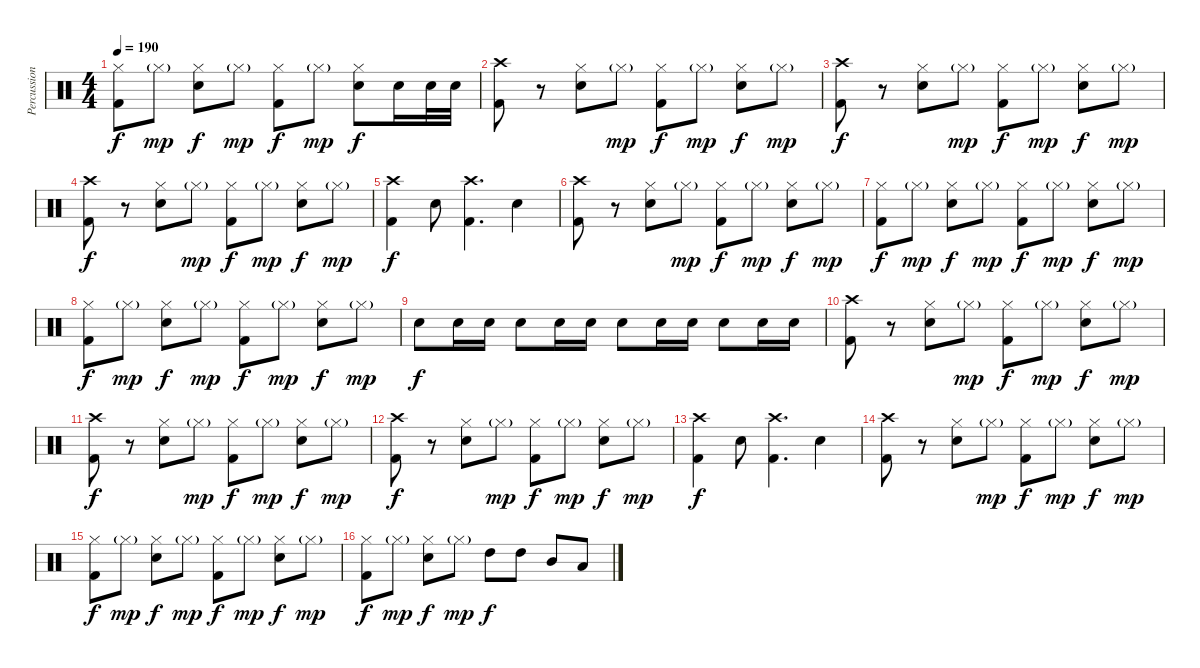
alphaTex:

\track ("Percussion" "Percussion") {instrument percussion}
\staff {score}
\articulation defaults
\ts (4 4)
\tempo 190
\clef neutral
\ks c
("Hi-Hat (closed)" "Kick (hit) 2").8{dy f} "Hi-Hat (closed)"{g}.8{dy mp} ("Hi-Hat (closed)" "Electric Snare (hit)").8{dy f} "Hi-Hat (closed)"{g}.8{dy mp} ("Hi-Hat (closed)" "Kick (hit) 2").8{dy f} "Hi-Hat (closed)"{g}.8{dy mp} ("Hi-Hat (closed)" "Electric Snare (hit)").8{dy f} "Electric Snare (hit)".16 "Electric Snare (hit)".32 "Electric Snare (hit)".32 |
("Crash high (hit)" "Kick (hit) 2").8 r.8 ("Hi-Hat (closed)" "Electric Snare (hit)").8 "Hi-Hat (closed)"{g}.8{dy mp} ("Hi-Hat (closed)" "Kick (hit) 2").8{dy f} "Hi-Hat (closed)"{g}.8{dy mp} ("Hi-Hat (closed)" "Electric Snare (hit)").8{dy f} "Hi-Hat (closed)"{g}.8{dy mp} |
("Crash high (hit)" "Kick (hit) 2").8{dy f} r.8 ("Hi-Hat (closed)" "Electric Snare (hit)").8 "Hi-Hat (closed)"{g}.8{dy mp} ("Hi-Hat (closed)" "Kick (hit) 2").8{dy f} "Hi-Hat (closed)"{g}.8{dy mp} ("Hi-Hat (closed)" "Electric Snare (hit)").8{dy f} "Hi-Hat (closed)"{g}.8{dy mp} |
("Crash high (hit)" "Kick (hit) 2").8{dy f} r.8 ("Hi-Hat (closed)" "Electric Snare (hit)").8 "Hi-Hat (closed)"{g}.8{dy mp} ("Hi-Hat (closed)" "Kick (hit) 2").8{dy f} "Hi-Hat (closed)"{g}.8{dy mp} ("Hi-Hat (closed)" "Electric Snare (hit)").8{dy f} "Hi-Hat (closed)"{g}.8{dy mp} |
("Crash high (hit)" "Kick (hit) 2").4{dy f} "Electric Snare (hit)".8 ("Crash high (hit)" "Kick (hit) 2").4{d} "Electric Snare (hit)".4 |
("Crash high (hit)" "Kick (hit) 2").8 r.8 ("Hi-Hat (closed)" "Electric Snare (hit)").8 "Hi-Hat (closed)"{g}.8{dy mp} ("Hi-Hat (closed)" "Kick (hit) 2").8{dy f} "Hi-Hat (closed)"{g}.8{dy mp} ("Hi-Hat (closed)" "Electric Snare (hit)").8{dy f} "Hi-Hat (closed)"{g}.8{dy mp} |
("Hi-Hat (closed)" "Kick (hit) 2").8{dy f} "Hi-Hat (closed)"{g}.8{dy mp} ("Hi-Hat (closed)" "Electric Snare (hit)").8{dy f} "Hi-Hat (closed)"{g}.8{dy mp} ("Hi-Hat (closed)" "Kick (hit) 2").8{dy f} "Hi-Hat (closed)"{g}.8{dy mp} ("Hi-Hat (closed)" "Electric Snare (hit)").8{dy f} "Hi-Hat (closed)"{g}.8{dy mp} |
("Hi-Hat (closed)" "Kick (hit) 2").8{dy f} "Hi-Hat (closed)"{g}.8{dy mp} ("Hi-Hat (closed)" "Electric Snare (hit)").8{dy f} "Hi-Hat (closed)"{g}.8{dy mp} ("Hi-Hat (closed)" "Kick (hit) 2").8{dy f} "Hi-Hat (closed)"{g}.8{dy mp} ("Hi-Hat (closed)" "Electric Snare (hit)").8{dy f} "Hi-Hat (closed)"{g}.8{dy mp} |
"Electric Snare (hit)".8{dy f} "Electric Snare (hit)".16 "Electric Snare (hit)".16 "Electric Snare (hit)".8 "Electric Snare (hit)".16 "Electric Snare (hit)".16 "Electric Snare (hit)".8 "Electric Snare (hit)".16 "Electric Snare (hit)".16 "Electric Snare (hit)".8 "Electric Snare (hit)".16 "Electric Snare (hit)".16 |
("Crash high (hit)" "Kick (hit) 2").8 r.8 ("Hi-Hat (closed)" "Electric Snare (hit)").8 "Hi-Hat (closed)"{g}.8{dy mp} ("Hi-Hat (closed)" "Kick (hit) 2").8{dy f} "Hi-Hat (closed)"{g}.8{dy mp} ("Hi-Hat (closed)" "Electric Snare (hit)").8{dy f} "Hi-Hat (closed)"{g}.8{dy mp} |
("Crash high (hit)" "Kick (hit) 2").8{dy f} r.8 ("Hi-Hat (closed)" "Electric Snare (hit)").8 "Hi-Hat (closed)"{g}.8{dy mp} ("Hi-Hat (closed)" "Kick (hit) 2").8{dy f} "Hi-Hat (closed)"{g}.8{dy mp} ("Hi-Hat (closed)" "Electric Snare (hit)").8{dy f} "Hi-Hat (closed)"{g}.8{dy mp} |
("Crash high (hit)" "Kick (hit) 2").8{dy f} r.8 ("Hi-Hat (closed)" "Electric Snare (hit)").8 "Hi-Hat (closed)"{g}.8{dy mp} ("Hi-Hat (closed)" "Kick (hit) 2").8{dy f} "Hi-Hat (closed)"{g}.8{dy mp} ("Hi-Hat (closed)" "Electric Snare (hit)").8{dy f} "Hi-Hat (closed)"{g}.8{dy mp} |
("Crash high (hit)" "Kick (hit) 2").4{dy f} "Electric Snare (hit)".8 ("Crash high (hit)" "Kick (hit) 2").4{d} "Electric Snare (hit)".4 |
("Crash high (hit)" "Kick (hit) 2").8 r.8 ("Hi-Hat (closed)" "Electric Snare (hit)").8 "Hi-Hat (closed)"{g}.8{dy mp} ("Hi-Hat (closed)" "Kick (hit) 2").8{dy f} "Hi-Hat (closed)"{g}.8{dy mp} ("Hi-Hat (closed)" "Electric Snare (hit)").8{dy f} "Hi-Hat (closed)"{g}.8{dy mp} |
("Hi-Hat (closed)" "Kick (hit) 2").8{dy f} "Hi-Hat (closed)"{g}.8{dy mp} ("Hi-Hat (closed)" "Electric Snare (hit)").8{dy f} "Hi-Hat (closed)"{g}.8{dy mp} ("Hi-Hat (closed)" "Kick (hit) 2").8{dy f} "Hi-Hat (closed)"{g}.8{dy mp} ("Hi-Hat (closed)" "Electric Snare (hit)").8{dy f} "Hi-Hat (closed)"{g}.8{dy mp} |
("Hi-Hat (closed)" "Kick (hit) 2").8{dy f} "Hi-Hat (closed)"{g}.8{dy mp} ("Hi-Hat (closed)" "Electric Snare (hit)").8{dy f} "Hi-Hat (closed)"{g}.8{dy mp} "High Tom (hit)".8{dy f} "High Tom (hit)".8 "Mid Tom (hit)".8 "Low Tom (hit)".8
